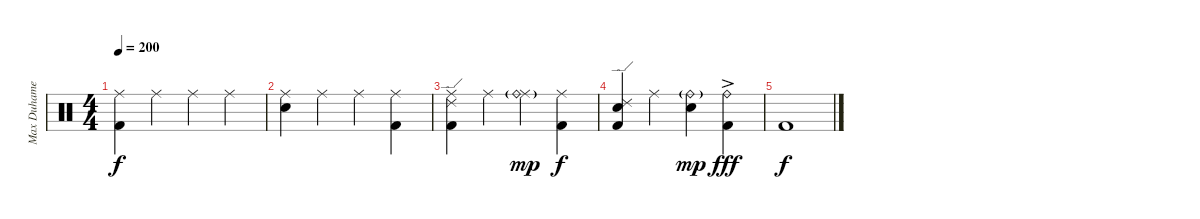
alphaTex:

\track ("Max Duhamel" "Max Duhame") {instrument percussion}
\staff {score}
\articulation defaults
\ts (4 4)
\tempo 200
\clef neutral
\ks c
("Ride (middle)" "Kick (hit) 2").4{dy f} "Ride (middle)".4 "Ride (middle)".4 "Ride (middle)".4 |
("Ride (middle)" "Electric Snare (hit)").4 "Ride (middle)".4 "Ride (middle)".4 ("Ride (middle)" "Kick (hit) 2").4 |
("Ride (middle)" "Ride (edge) 2" "Kick (hit) 2").4 "Ride (middle)".4 ("Ride (middle)" "Ride (bell)"{g}).4{dy mp} ("Ride (middle)" "Kick (hit) 2").4{dy f} |
("Electric Snare (hit)" "Ride (edge) 2" "Kick (hit) 2").4 "Ride (middle)".4 ("Electric Snare (hit)" "Ride (bell)"{g}).4{dy mp} ("Ride (bell)"{ac} "Kick (hit) 2").4{dy fff} |
\section ("" "")
"Kick (hit) 2".1{dy f}
